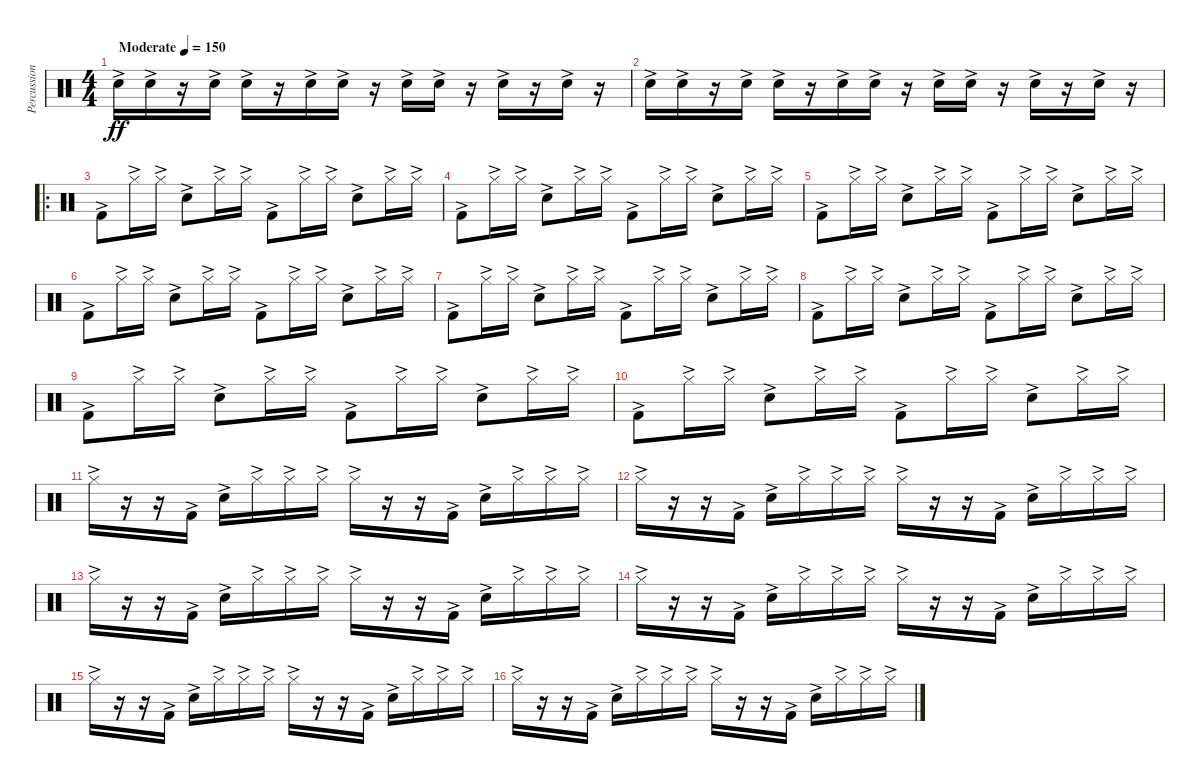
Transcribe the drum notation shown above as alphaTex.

\track ("Percussion" "Percussion") {instrument percussion bank 163}
\staff {score}
\articulation defaults
\ts (4 4)
\tempo (150 "Moderate")
\clef neutral
\ks c "Snare (hit) 2"{ac}.16{dy ff} "Snare (hit) 2"{ac}.16
r.16 "Snare (hit) 2"{ac}.16 "Snare (hit) 2"{ac}.16 r.16 "Snare (hit) 2"{ac}.16 "Snare (hit) 2"{ac}.16 r.16 "Snare (hit) 2"{ac}.16 "Snare (hit) 2"{ac}.16 r.16 "Snare (hit) 2"{ac}.16 r.16 "Snare (hit) 2"{ac}.16 r.16 |
"Snare (hit) 2"{ac}.16 "Snare (hit) 2"{ac}.16 r.16 "Snare (hit) 2"{ac}.16 "Snare (hit) 2"{ac}.16 r.16 "Snare (hit) 2"{ac}.16 "Snare (hit) 2"{ac}.16 r.16 "Snare (hit) 2"{ac}.16 "Snare (hit) 2"{ac}.16 r.16 "Snare (hit) 2"{ac}.16 r.16 "Snare (hit) 2"{ac}.16 r.16 |
\ro "Kick (hit) 2"{ac}.8 "Hi-Hat (closed)"{ac}.16 "Hi-Hat (closed)"{ac}.16 "Snare (hit) 2"{ac}.8 "Hi-Hat (closed)"{ac}.16 "Hi-Hat (closed)"{ac}.16 "Kick (hit) 2"{ac}.8 "Hi-Hat (closed)"{ac}.16 "Hi-Hat (closed)"{ac}.16 "Snare (hit) 2"{ac}.8 "Hi-Hat (closed)"{ac}.16 "Hi-Hat (closed)"{ac}.16
|
"Kick (hit) 2"{ac}.8 "Hi-Hat (closed)"{ac}.16 "Hi-Hat (closed)"{ac}.16 "Snare (hit) 2"{ac}.8 "Hi-Hat (closed)"{ac}.16 "Hi-Hat (closed)"{ac}.16 "Kick (hit) 2"{ac}.8 "Hi-Hat (closed)"{ac}.16 "Hi-Hat (closed)"{ac}.16 "Snare (hit) 2"{ac}.8 "Hi-Hat (closed)"{ac}.16 "Hi-Hat (closed)"{ac}.16 |
"Kick (hit) 2"{ac}.8 "Hi-Hat (closed)"{ac}.16 "Hi-Hat (closed)"{ac}.16 "Snare (hit) 2"{ac}.8 "Hi-Hat (closed)"{ac}.16 "Hi-Hat (closed)"{ac}.16 "Kick (hit) 2"{ac}.8 "Hi-Hat (closed)"{ac}.16 "Hi-Hat (closed)"{ac}.16 "Snare (hit) 2"{ac}.8 "Hi-Hat (closed)"{ac}.16 "Hi-Hat (closed)"{ac}.16 |
"Kick (hit) 2"{ac}.8 "Hi-Hat (closed)"{ac}.16 "Hi-Hat (closed)"{ac}.16 "Snare (hit) 2"{ac}.8 "Hi-Hat (closed)"{ac}.16 "Hi-Hat (closed)"{ac}.16 "Kick (hit) 2"{ac}.8 "Hi-Hat (closed)"{ac}.16 "Hi-Hat (closed)"{ac}.16 "Snare (hit) 2"{ac}.8 "Hi-Hat (closed)"{ac}.16 "Hi-Hat (closed)"{ac}.16 |
"Kick (hit) 2"{ac}.8 "Hi-Hat (closed)"{ac}.16 "Hi-Hat (closed)"{ac}.16 "Snare (hit) 2"{ac}.8 "Hi-Hat (closed)"{ac}.16 "Hi-Hat (closed)"{ac}.16 "Kick (hit) 2"{ac}.8 "Hi-Hat (closed)"{ac}.16 "Hi-Hat (closed)"{ac}.16 "Snare (hit) 2"{ac}.8 "Hi-Hat (closed)"{ac}.16 "Hi-Hat (closed)"{ac}.16 |
"Kick (hit) 2"{ac}.8 "Hi-Hat (closed)"{ac}.16 "Hi-Hat (closed)"{ac}.16 "Snare (hit) 2"{ac}.8 "Hi-Hat (closed)"{ac}.16 "Hi-Hat (closed)"{ac}.16 "Kick (hit) 2"{ac}.8 "Hi-Hat (closed)"{ac}.16 "Hi-Hat (closed)"{ac}.16 "Snare (hit) 2"{ac}.8 "Hi-Hat (closed)"{ac}.16 "Hi-Hat (closed)"{ac}.16 |
"Kick (hit) 2"{ac}.8 "Hi-Hat (closed)"{ac}.16 "Hi-Hat (closed)"{ac}.16 "Snare (hit) 2"{ac}.8 "Hi-Hat (closed)"{ac}.16 "Hi-Hat (closed)"{ac}.16 "Kick (hit) 2"{ac}.8 "Hi-Hat (closed)"{ac}.16 "Hi-Hat (closed)"{ac}.16 "Snare (hit) 2"{ac}.8 "Hi-Hat (closed)"{ac}.16 "Hi-Hat (closed)"{ac}.16 |
"Kick (hit) 2"{ac}.8 "Hi-Hat (closed)"{ac}.16 "Hi-Hat (closed)"{ac}.16 "Snare (hit) 2"{ac}.8 "Hi-Hat (closed)"{ac}.16 "Hi-Hat (closed)"{ac}.16 "Kick (hit) 2"{ac}.8 "Hi-Hat (closed)"{ac}.16 "Hi-Hat (closed)"{ac}.16 "Snare (hit) 2"{ac}.8 "Hi-Hat (closed)"{ac}.16 "Hi-Hat (closed)"{ac}.16 |
"Hi-Hat (closed)"{ac}.16 r.16 r.16 "Kick (hit) 2"{ac}.16 "Snare (hit) 2"{ac}.16 "Hi-Hat (closed)"{ac}.16 "Hi-Hat (closed)"{ac}.16 "Hi-Hat (closed)"{ac}.16 "Hi-Hat (closed)"{ac}.16 r.16 r.16 "Kick (hit) 2"{ac}.16 "Snare (hit) 2"{ac}.16 "Hi-Hat (closed)"{ac}.16 "Hi-Hat (closed)"{ac}.16 "Hi-Hat (closed)"{ac}.16 |
"Hi-Hat (closed)"{ac}.16 r.16 r.16 "Kick (hit) 2"{ac}.16 "Snare (hit) 2"{ac}.16 "Hi-Hat (closed)"{ac}.16 "Hi-Hat (closed)"{ac}.16 "Hi-Hat (closed)"{ac}.16 "Hi-Hat (closed)"{ac}.16 r.16 r.16 "Kick (hit) 2"{ac}.16 "Snare (hit) 2"{ac}.16 "Hi-Hat (closed)"{ac}.16 "Hi-Hat (closed)"{ac}.16 "Hi-Hat (closed)"{ac}.16 |
"Hi-Hat (closed)"{ac}.16 r.16 r.16 "Kick (hit) 2"{ac}.16 "Snare (hit) 2"{ac}.16 "Hi-Hat (closed)"{ac}.16 "Hi-Hat (closed)"{ac}.16 "Hi-Hat (closed)"{ac}.16 "Hi-Hat (closed)"{ac}.16 r.16 r.16 "Kick (hit) 2"{ac}.16 "Snare (hit) 2"{ac}.16 "Hi-Hat (closed)"{ac}.16 "Hi-Hat (closed)"{ac}.16 "Hi-Hat (closed)"{ac}.16 |
"Hi-Hat (closed)"{ac}.16 r.16 r.16 "Kick (hit) 2"{ac}.16 "Snare (hit) 2"{ac}.16 "Hi-Hat (closed)"{ac}.16 "Hi-Hat (closed)"{ac}.16 "Hi-Hat (closed)"{ac}.16 "Hi-Hat (closed)"{ac}.16 r.16 r.16 "Kick (hit) 2"{ac}.16 "Snare (hit) 2"{ac}.16 "Hi-Hat (closed)"{ac}.16 "Hi-Hat (closed)"{ac}.16 "Hi-Hat (closed)"{ac}.16 |
"Hi-Hat (closed)"{ac}.16 r.16 r.16 "Kick (hit) 2"{ac}.16 "Snare (hit) 2"{ac}.16 "Hi-Hat (closed)"{ac}.16 "Hi-Hat (closed)"{ac}.16 "Hi-Hat (closed)"{ac}.16 "Hi-Hat (closed)"{ac}.16 r.16 r.16 "Kick (hit) 2"{ac}.16 "Snare (hit) 2"{ac}.16 "Hi-Hat (closed)"{ac}.16 "Hi-Hat (closed)"{ac}.16 "Hi-Hat (closed)"{ac}.16 |
"Hi-Hat (closed)"{ac}.16 r.16 r.16 "Kick (hit) 2"{ac}.16 "Snare (hit) 2"{ac}.16 "Hi-Hat (closed)"{ac}.16 "Hi-Hat (closed)"{ac}.16 "Hi-Hat (closed)"{ac}.16 "Hi-Hat (closed)"{ac}.16 r.16 r.16 "Kick (hit) 2"{ac}.16 "Snare (hit) 2"{ac}.16 "Hi-Hat (closed)"{ac}.16 "Hi-Hat (closed)"{ac}.16 "Hi-Hat (closed)"{ac}.16
